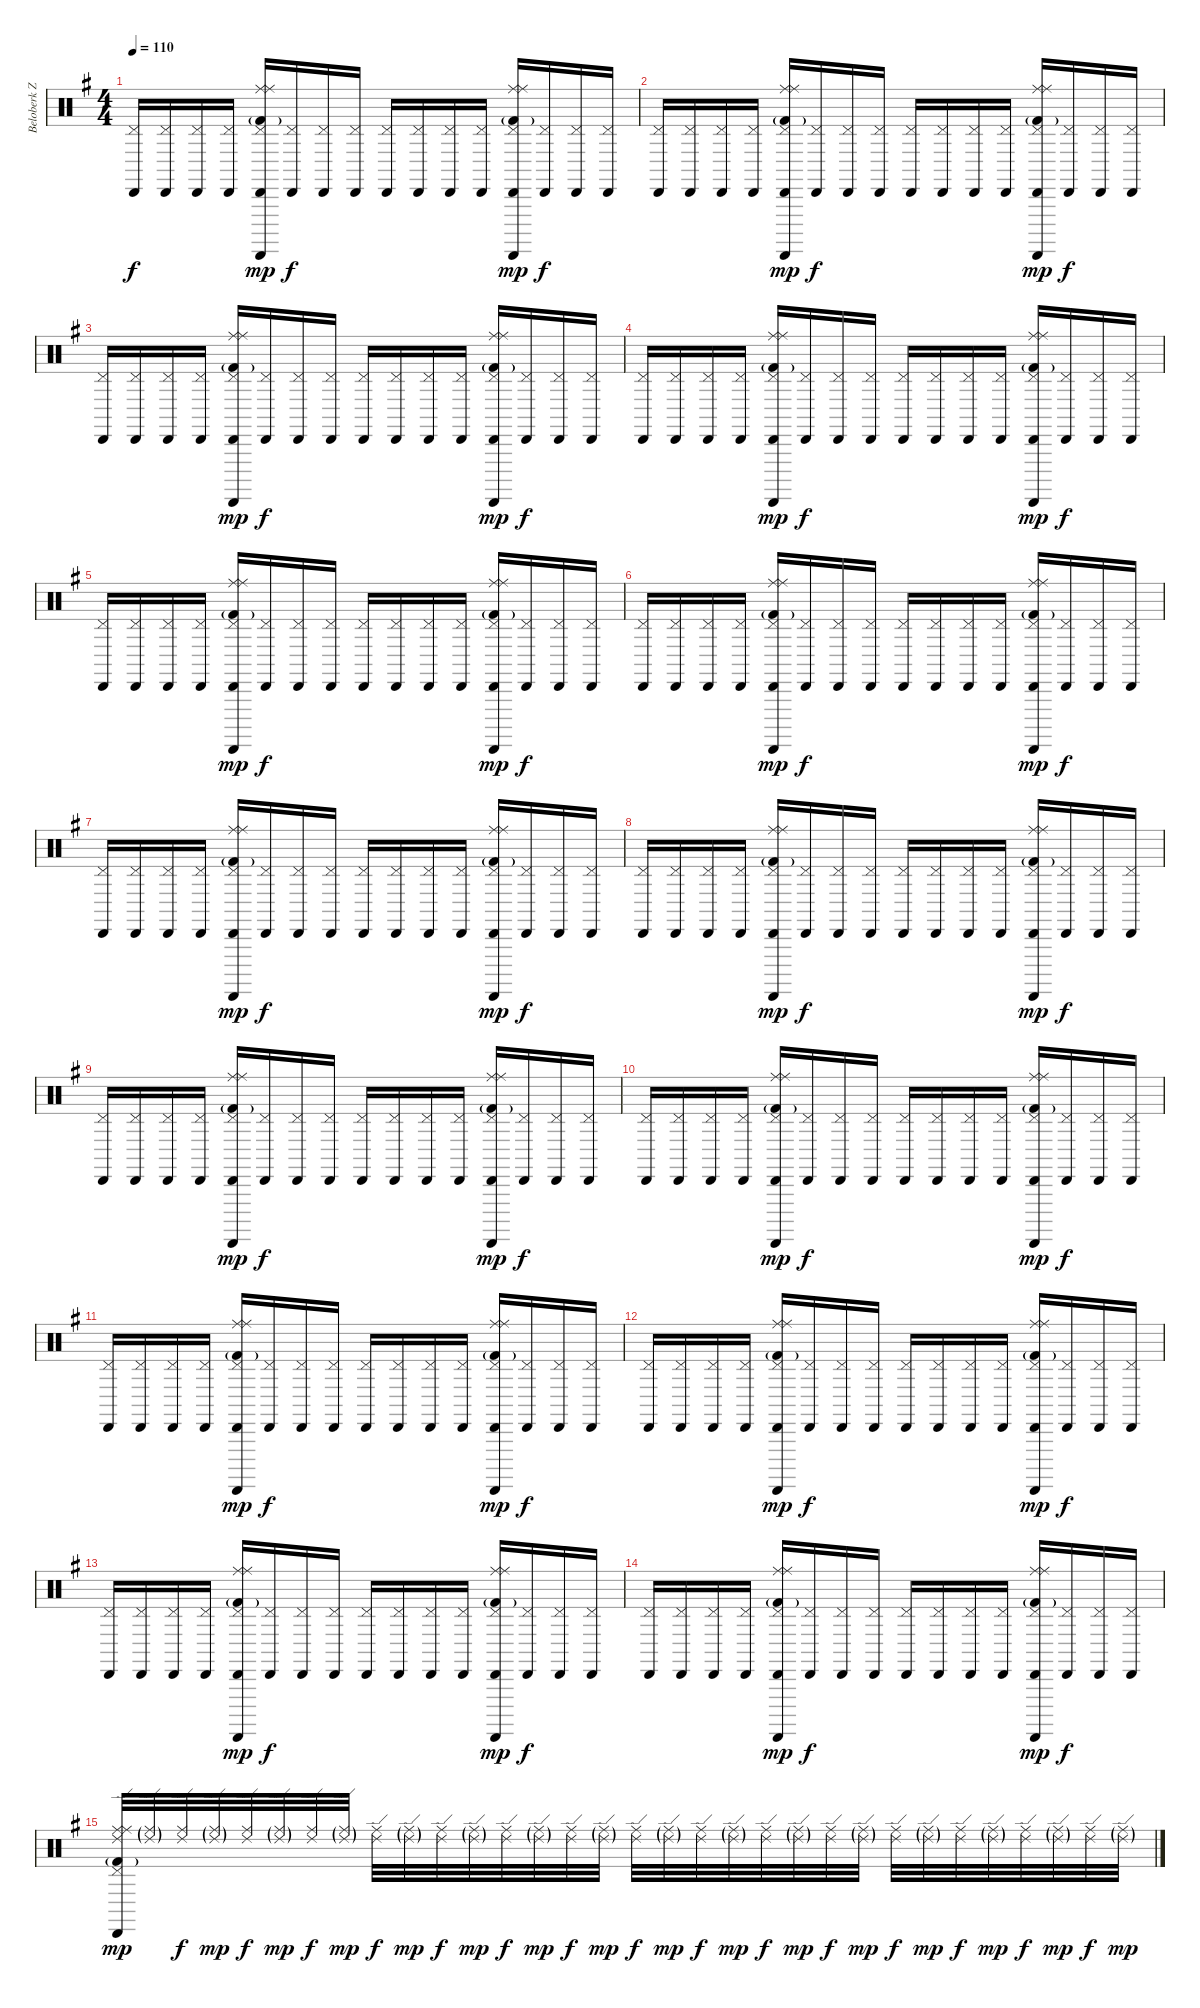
\track ("Beloberk Zsolt" "Beloberk Z") {instrument percussion}
\staff {score}
\articulation defaults
\ts (4 4)
\tempo 110
\clef neutral
\ks eminor
("Pedal Hi-Hat (hit)" "Cabasa (hit)").16{dy f} ("Pedal Hi-Hat (hit)" "Cabasa (hit)").16 ("Pedal Hi-Hat (hit)" "Cabasa (hit)").16 ("Pedal Hi-Hat (hit)" "Cabasa (hit)").16 ("Pedal Hi-Hat (hit)" "Cabasa (hit)" "Ride (middle)" "Ride (middle)" "Kick (hit) 2"{g} "Guiro (scrap-return)").16{dy mp} ("Pedal Hi-Hat (hit)" "Cabasa (hit)").16{dy f} ("Pedal Hi-Hat (hit)" "Cabasa (hit)").16 ("Pedal Hi-Hat (hit)" "Cabasa (hit)").16 ("Pedal Hi-Hat (hit)" "Cabasa (hit)").16 ("Pedal Hi-Hat (hit)" "Cabasa (hit)").16 ("Pedal Hi-Hat (hit)" "Cabasa (hit)").16 ("Pedal Hi-Hat (hit)" "Cabasa (hit)").16 ("Pedal Hi-Hat (hit)" "Cabasa (hit)" "Ride (middle)" "Ride (middle)" "Kick (hit) 2"{g} "Guiro (scrap-return)").16{dy mp} ("Pedal Hi-Hat (hit)" "Cabasa (hit)").16{dy f} ("Pedal Hi-Hat (hit)" "Cabasa (hit)").16 ("Pedal Hi-Hat (hit)" "Cabasa (hit)").16 |
("Pedal Hi-Hat (hit)" "Cabasa (hit)").16 ("Pedal Hi-Hat (hit)" "Cabasa (hit)").16 ("Pedal Hi-Hat (hit)" "Cabasa (hit)").16 ("Pedal Hi-Hat (hit)" "Cabasa (hit)").16 ("Pedal Hi-Hat (hit)" "Cabasa (hit)" "Ride (middle)" "Ride (middle)" "Kick (hit) 2"{g} "Guiro (scrap-return)").16{dy mp} ("Pedal Hi-Hat (hit)" "Cabasa (hit)").16{dy f} ("Pedal Hi-Hat (hit)" "Cabasa (hit)").16 ("Pedal Hi-Hat (hit)" "Cabasa (hit)").16 ("Pedal Hi-Hat (hit)" "Cabasa (hit)").16 ("Pedal Hi-Hat (hit)" "Cabasa (hit)").16 ("Pedal Hi-Hat (hit)" "Cabasa (hit)").16 ("Pedal Hi-Hat (hit)" "Cabasa (hit)").16 ("Pedal Hi-Hat (hit)" "Cabasa (hit)" "Ride (middle)" "Ride (middle)" "Kick (hit) 2"{g} "Guiro (scrap-return)").16{dy mp} ("Pedal Hi-Hat (hit)" "Cabasa (hit)").16{dy f} ("Pedal Hi-Hat (hit)" "Cabasa (hit)").16 ("Pedal Hi-Hat (hit)" "Cabasa (hit)").16 |
("Pedal Hi-Hat (hit)" "Cabasa (hit)").16 ("Pedal Hi-Hat (hit)" "Cabasa (hit)").16 ("Pedal Hi-Hat (hit)" "Cabasa (hit)").16 ("Pedal Hi-Hat (hit)" "Cabasa (hit)").16 ("Pedal Hi-Hat (hit)" "Cabasa (hit)" "Ride (middle)" "Ride (middle)" "Kick (hit) 2"{g} "Guiro (scrap-return)").16{dy mp} ("Pedal Hi-Hat (hit)" "Cabasa (hit)").16{dy f} ("Pedal Hi-Hat (hit)" "Cabasa (hit)").16 ("Pedal Hi-Hat (hit)" "Cabasa (hit)").16 ("Pedal Hi-Hat (hit)" "Cabasa (hit)").16 ("Pedal Hi-Hat (hit)" "Cabasa (hit)").16 ("Pedal Hi-Hat (hit)" "Cabasa (hit)").16 ("Pedal Hi-Hat (hit)" "Cabasa (hit)").16 ("Pedal Hi-Hat (hit)" "Cabasa (hit)" "Ride (middle)" "Ride (middle)" "Kick (hit) 2"{g} "Guiro (scrap-return)").16{dy mp} ("Pedal Hi-Hat (hit)" "Cabasa (hit)").16{dy f} ("Pedal Hi-Hat (hit)" "Cabasa (hit)").16 ("Pedal Hi-Hat (hit)" "Cabasa (hit)").16 |
("Pedal Hi-Hat (hit)" "Cabasa (hit)").16 ("Pedal Hi-Hat (hit)" "Cabasa (hit)").16 ("Pedal Hi-Hat (hit)" "Cabasa (hit)").16 ("Pedal Hi-Hat (hit)" "Cabasa (hit)").16 ("Pedal Hi-Hat (hit)" "Cabasa (hit)" "Ride (middle)" "Ride (middle)" "Kick (hit) 2"{g} "Guiro (scrap-return)").16{dy mp} ("Pedal Hi-Hat (hit)" "Cabasa (hit)").16{dy f} ("Pedal Hi-Hat (hit)" "Cabasa (hit)").16 ("Pedal Hi-Hat (hit)" "Cabasa (hit)").16 ("Pedal Hi-Hat (hit)" "Cabasa (hit)").16 ("Pedal Hi-Hat (hit)" "Cabasa (hit)").16 ("Pedal Hi-Hat (hit)" "Cabasa (hit)").16 ("Pedal Hi-Hat (hit)" "Cabasa (hit)").16 ("Pedal Hi-Hat (hit)" "Cabasa (hit)" "Ride (middle)" "Ride (middle)" "Kick (hit) 2"{g} "Guiro (scrap-return)").16{dy mp} ("Pedal Hi-Hat (hit)" "Cabasa (hit)").16{dy f} ("Pedal Hi-Hat (hit)" "Cabasa (hit)").16 ("Pedal Hi-Hat (hit)" "Cabasa (hit)").16 |
("Pedal Hi-Hat (hit)" "Cabasa (hit)").16 ("Pedal Hi-Hat (hit)" "Cabasa (hit)").16 ("Pedal Hi-Hat (hit)" "Cabasa (hit)").16 ("Pedal Hi-Hat (hit)" "Cabasa (hit)").16 ("Pedal Hi-Hat (hit)" "Cabasa (hit)" "Ride (middle)" "Ride (middle)" "Kick (hit) 2"{g} "Guiro (scrap-return)").16{dy mp} ("Pedal Hi-Hat (hit)" "Cabasa (hit)").16{dy f} ("Pedal Hi-Hat (hit)" "Cabasa (hit)").16 ("Pedal Hi-Hat (hit)" "Cabasa (hit)").16 ("Pedal Hi-Hat (hit)" "Cabasa (hit)").16 ("Pedal Hi-Hat (hit)" "Cabasa (hit)").16 ("Pedal Hi-Hat (hit)" "Cabasa (hit)").16 ("Pedal Hi-Hat (hit)" "Cabasa (hit)").16 ("Pedal Hi-Hat (hit)" "Cabasa (hit)" "Ride (middle)" "Ride (middle)" "Kick (hit) 2"{g} "Guiro (scrap-return)").16{dy mp} ("Pedal Hi-Hat (hit)" "Cabasa (hit)").16{dy f} ("Pedal Hi-Hat (hit)" "Cabasa (hit)").16 ("Pedal Hi-Hat (hit)" "Cabasa (hit)").16 |
("Pedal Hi-Hat (hit)" "Cabasa (hit)").16 ("Pedal Hi-Hat (hit)" "Cabasa (hit)").16 ("Pedal Hi-Hat (hit)" "Cabasa (hit)").16 ("Pedal Hi-Hat (hit)" "Cabasa (hit)").16 ("Pedal Hi-Hat (hit)" "Cabasa (hit)" "Ride (middle)" "Ride (middle)" "Kick (hit) 2"{g} "Guiro (scrap-return)").16{dy mp} ("Pedal Hi-Hat (hit)" "Cabasa (hit)").16{dy f} ("Pedal Hi-Hat (hit)" "Cabasa (hit)").16 ("Pedal Hi-Hat (hit)" "Cabasa (hit)").16 ("Pedal Hi-Hat (hit)" "Cabasa (hit)").16 ("Pedal Hi-Hat (hit)" "Cabasa (hit)").16 ("Pedal Hi-Hat (hit)" "Cabasa (hit)").16 ("Pedal Hi-Hat (hit)" "Cabasa (hit)").16 ("Pedal Hi-Hat (hit)" "Cabasa (hit)" "Ride (middle)" "Ride (middle)" "Kick (hit) 2"{g} "Guiro (scrap-return)").16{dy mp} ("Pedal Hi-Hat (hit)" "Cabasa (hit)").16{dy f} ("Pedal Hi-Hat (hit)" "Cabasa (hit)").16 ("Pedal Hi-Hat (hit)" "Cabasa (hit)").16 |
("Pedal Hi-Hat (hit)" "Cabasa (hit)").16 ("Pedal Hi-Hat (hit)" "Cabasa (hit)").16 ("Pedal Hi-Hat (hit)" "Cabasa (hit)").16 ("Pedal Hi-Hat (hit)" "Cabasa (hit)").16 ("Pedal Hi-Hat (hit)" "Cabasa (hit)" "Ride (middle)" "Ride (middle)" "Kick (hit) 2"{g} "Guiro (scrap-return)").16{dy mp} ("Pedal Hi-Hat (hit)" "Cabasa (hit)").16{dy f} ("Pedal Hi-Hat (hit)" "Cabasa (hit)").16 ("Pedal Hi-Hat (hit)" "Cabasa (hit)").16 ("Pedal Hi-Hat (hit)" "Cabasa (hit)").16 ("Pedal Hi-Hat (hit)" "Cabasa (hit)").16 ("Pedal Hi-Hat (hit)" "Cabasa (hit)").16 ("Pedal Hi-Hat (hit)" "Cabasa (hit)").16 ("Pedal Hi-Hat (hit)" "Cabasa (hit)" "Ride (middle)" "Ride (middle)" "Kick (hit) 2"{g} "Guiro (scrap-return)").16{dy mp} ("Pedal Hi-Hat (hit)" "Cabasa (hit)").16{dy f} ("Pedal Hi-Hat (hit)" "Cabasa (hit)").16 ("Pedal Hi-Hat (hit)" "Cabasa (hit)").16 |
("Pedal Hi-Hat (hit)" "Cabasa (hit)").16 ("Pedal Hi-Hat (hit)" "Cabasa (hit)").16 ("Pedal Hi-Hat (hit)" "Cabasa (hit)").16 ("Pedal Hi-Hat (hit)" "Cabasa (hit)").16 ("Pedal Hi-Hat (hit)" "Cabasa (hit)" "Ride (middle)" "Ride (middle)" "Kick (hit) 2"{g} "Guiro (scrap-return)").16{dy mp} ("Pedal Hi-Hat (hit)" "Cabasa (hit)").16{dy f} ("Pedal Hi-Hat (hit)" "Cabasa (hit)").16 ("Pedal Hi-Hat (hit)" "Cabasa (hit)").16 ("Pedal Hi-Hat (hit)" "Cabasa (hit)").16 ("Pedal Hi-Hat (hit)" "Cabasa (hit)").16 ("Pedal Hi-Hat (hit)" "Cabasa (hit)").16 ("Pedal Hi-Hat (hit)" "Cabasa (hit)").16 ("Pedal Hi-Hat (hit)" "Cabasa (hit)" "Ride (middle)" "Ride (middle)" "Kick (hit) 2"{g} "Guiro (scrap-return)").16{dy mp} ("Pedal Hi-Hat (hit)" "Cabasa (hit)").16{dy f} ("Pedal Hi-Hat (hit)" "Cabasa (hit)").16 ("Pedal Hi-Hat (hit)" "Cabasa (hit)").16 |
("Pedal Hi-Hat (hit)" "Cabasa (hit)").16 ("Pedal Hi-Hat (hit)" "Cabasa (hit)").16 ("Pedal Hi-Hat (hit)" "Cabasa (hit)").16 ("Pedal Hi-Hat (hit)" "Cabasa (hit)").16 ("Pedal Hi-Hat (hit)" "Cabasa (hit)" "Ride (middle)" "Ride (middle)" "Kick (hit) 2"{g} "Guiro (scrap-return)").16{dy mp} ("Pedal Hi-Hat (hit)" "Cabasa (hit)").16{dy f} ("Pedal Hi-Hat (hit)" "Cabasa (hit)").16 ("Pedal Hi-Hat (hit)" "Cabasa (hit)").16 ("Pedal Hi-Hat (hit)" "Cabasa (hit)").16 ("Pedal Hi-Hat (hit)" "Cabasa (hit)").16 ("Pedal Hi-Hat (hit)" "Cabasa (hit)").16 ("Pedal Hi-Hat (hit)" "Cabasa (hit)").16 ("Pedal Hi-Hat (hit)" "Cabasa (hit)" "Ride (middle)" "Ride (middle)" "Kick (hit) 2"{g} "Guiro (scrap-return)").16{dy mp} ("Pedal Hi-Hat (hit)" "Cabasa (hit)").16{dy f} ("Pedal Hi-Hat (hit)" "Cabasa (hit)").16 ("Pedal Hi-Hat (hit)" "Cabasa (hit)").16 |
("Pedal Hi-Hat (hit)" "Cabasa (hit)").16 ("Pedal Hi-Hat (hit)" "Cabasa (hit)").16 ("Pedal Hi-Hat (hit)" "Cabasa (hit)").16 ("Pedal Hi-Hat (hit)" "Cabasa (hit)").16 ("Pedal Hi-Hat (hit)" "Cabasa (hit)" "Ride (middle)" "Ride (middle)" "Kick (hit) 2"{g} "Guiro (scrap-return)").16{dy mp} ("Pedal Hi-Hat (hit)" "Cabasa (hit)").16{dy f} ("Pedal Hi-Hat (hit)" "Cabasa (hit)").16 ("Pedal Hi-Hat (hit)" "Cabasa (hit)").16 ("Pedal Hi-Hat (hit)" "Cabasa (hit)").16 ("Pedal Hi-Hat (hit)" "Cabasa (hit)").16 ("Pedal Hi-Hat (hit)" "Cabasa (hit)").16 ("Pedal Hi-Hat (hit)" "Cabasa (hit)").16 ("Pedal Hi-Hat (hit)" "Cabasa (hit)" "Ride (middle)" "Ride (middle)" "Kick (hit) 2"{g} "Guiro (scrap-return)").16{dy mp} ("Pedal Hi-Hat (hit)" "Cabasa (hit)").16{dy f} ("Pedal Hi-Hat (hit)" "Cabasa (hit)").16 ("Pedal Hi-Hat (hit)" "Cabasa (hit)").16 |
("Pedal Hi-Hat (hit)" "Cabasa (hit)").16 ("Pedal Hi-Hat (hit)" "Cabasa (hit)").16 ("Pedal Hi-Hat (hit)" "Cabasa (hit)").16 ("Pedal Hi-Hat (hit)" "Cabasa (hit)").16 ("Pedal Hi-Hat (hit)" "Cabasa (hit)" "Ride (middle)" "Ride (middle)" "Kick (hit) 2"{g} "Guiro (scrap-return)").16{dy mp} ("Pedal Hi-Hat (hit)" "Cabasa (hit)").16{dy f} ("Pedal Hi-Hat (hit)" "Cabasa (hit)").16 ("Pedal Hi-Hat (hit)" "Cabasa (hit)").16 ("Pedal Hi-Hat (hit)" "Cabasa (hit)").16 ("Pedal Hi-Hat (hit)" "Cabasa (hit)").16 ("Pedal Hi-Hat (hit)" "Cabasa (hit)").16 ("Pedal Hi-Hat (hit)" "Cabasa (hit)").16 ("Pedal Hi-Hat (hit)" "Cabasa (hit)" "Ride (middle)" "Ride (middle)" "Kick (hit) 2"{g} "Guiro (scrap-return)").16{dy mp} ("Pedal Hi-Hat (hit)" "Cabasa (hit)").16{dy f} ("Pedal Hi-Hat (hit)" "Cabasa (hit)").16 ("Pedal Hi-Hat (hit)" "Cabasa (hit)").16 |
("Pedal Hi-Hat (hit)" "Cabasa (hit)").16 ("Pedal Hi-Hat (hit)" "Cabasa (hit)").16 ("Pedal Hi-Hat (hit)" "Cabasa (hit)").16 ("Pedal Hi-Hat (hit)" "Cabasa (hit)").16 ("Pedal Hi-Hat (hit)" "Cabasa (hit)" "Ride (middle)" "Ride (middle)" "Kick (hit) 2"{g} "Guiro (scrap-return)").16{dy mp} ("Pedal Hi-Hat (hit)" "Cabasa (hit)").16{dy f} ("Pedal Hi-Hat (hit)" "Cabasa (hit)").16 ("Pedal Hi-Hat (hit)" "Cabasa (hit)").16 ("Pedal Hi-Hat (hit)" "Cabasa (hit)").16 ("Pedal Hi-Hat (hit)" "Cabasa (hit)").16 ("Pedal Hi-Hat (hit)" "Cabasa (hit)").16 ("Pedal Hi-Hat (hit)" "Cabasa (hit)").16 ("Pedal Hi-Hat (hit)" "Cabasa (hit)" "Ride (middle)" "Ride (middle)" "Kick (hit) 2"{g} "Guiro (scrap-return)").16{dy mp} ("Pedal Hi-Hat (hit)" "Cabasa (hit)").16{dy f} ("Pedal Hi-Hat (hit)" "Cabasa (hit)").16 ("Pedal Hi-Hat (hit)" "Cabasa (hit)").16 |
("Pedal Hi-Hat (hit)" "Cabasa (hit)").16 ("Pedal Hi-Hat (hit)" "Cabasa (hit)").16 ("Pedal Hi-Hat (hit)" "Cabasa (hit)").16 ("Pedal Hi-Hat (hit)" "Cabasa (hit)").16 ("Pedal Hi-Hat (hit)" "Cabasa (hit)" "Ride (middle)" "Ride (middle)" "Kick (hit) 2"{g} "Guiro (scrap-return)").16{dy mp} ("Pedal Hi-Hat (hit)" "Cabasa (hit)").16{dy f} ("Pedal Hi-Hat (hit)" "Cabasa (hit)").16 ("Pedal Hi-Hat (hit)" "Cabasa (hit)").16 ("Pedal Hi-Hat (hit)" "Cabasa (hit)").16 ("Pedal Hi-Hat (hit)" "Cabasa (hit)").16 ("Pedal Hi-Hat (hit)" "Cabasa (hit)").16 ("Pedal Hi-Hat (hit)" "Cabasa (hit)").16 ("Pedal Hi-Hat (hit)" "Cabasa (hit)" "Ride (middle)" "Ride (middle)" "Kick (hit) 2"{g} "Guiro (scrap-return)").16{dy mp} ("Pedal Hi-Hat (hit)" "Cabasa (hit)").16{dy f} ("Pedal Hi-Hat (hit)" "Cabasa (hit)").16 ("Pedal Hi-Hat (hit)" "Cabasa (hit)").16 |
("Pedal Hi-Hat (hit)" "Cabasa (hit)").16 ("Pedal Hi-Hat (hit)" "Cabasa (hit)").16 ("Pedal Hi-Hat (hit)" "Cabasa (hit)").16 ("Pedal Hi-Hat (hit)" "Cabasa (hit)").16 ("Pedal Hi-Hat (hit)" "Cabasa (hit)" "Ride (middle)" "Ride (middle)" "Kick (hit) 2"{g} "Guiro (scrap-return)").16{dy mp} ("Pedal Hi-Hat (hit)" "Cabasa (hit)").16{dy f} ("Pedal Hi-Hat (hit)" "Cabasa (hit)").16 ("Pedal Hi-Hat (hit)" "Cabasa (hit)").16 ("Pedal Hi-Hat (hit)" "Cabasa (hit)").16 ("Pedal Hi-Hat (hit)" "Cabasa (hit)").16 ("Pedal Hi-Hat (hit)" "Cabasa (hit)").16 ("Pedal Hi-Hat (hit)" "Cabasa (hit)").16 ("Pedal Hi-Hat (hit)" "Cabasa (hit)" "Ride (middle)" "Ride (middle)" "Kick (hit) 2"{g} "Guiro (scrap-return)").16{dy mp} ("Pedal Hi-Hat (hit)" "Cabasa (hit)").16{dy f} ("Pedal Hi-Hat (hit)" "Cabasa (hit)").16 ("Pedal Hi-Hat (hit)" "Cabasa (hit)").16 |
("Pedal Hi-Hat (hit)" "Cabasa (hit)" "Ride (middle)" "Ride (edge) 2" "Kick (hit) 2"{g} "Ride (middle)").32{dy mp} ("Ride (middle)"{g} "Ride (edge) 2"{g}).32 ("Ride (middle)" "Ride (edge) 2").32{dy f} ("Ride (middle)"{g} "Ride (edge) 2"{g}).32{dy mp} ("Ride (middle)" "Ride (edge) 2").32{dy f} ("Ride (middle)"{g} "Ride (edge) 2"{g}).32{dy mp} ("Ride (middle)" "Ride (edge) 2").32{dy f} ("Ride (middle)"{g} "Ride (edge) 2"{g}).32{dy mp} ("Ride (middle)" "Ride (edge) 2").32{dy f} ("Ride (middle)"{g} "Ride (edge) 2"{g}).32{dy mp} ("Ride (middle)" "Ride (edge) 2").32{dy f} ("Ride (middle)"{g} "Ride (edge) 2"{g}).32{dy mp} ("Ride (middle)" "Ride (edge) 2").32{dy f} ("Ride (middle)"{g} "Ride (edge) 2"{g}).32{dy mp} ("Ride (middle)" "Ride (edge) 2").32{dy f} ("Ride (middle)"{g} "Ride (edge) 2"{g}).32{dy mp} ("Ride (middle)" "Ride (edge) 2").32{dy f} ("Ride (middle)"{g} "Ride (edge) 2"{g}).32{dy mp} ("Ride (middle)" "Ride (edge) 2").32{dy f} ("Ride (middle)"{g} "Ride (edge) 2"{g}).32{dy mp} ("Ride (middle)" "Ride (edge) 2").32{dy f} ("Ride (middle)"{g} "Ride (edge) 2"{g}).32{dy mp} ("Ride (middle)" "Ride (edge) 2").32{dy f} ("Ride (middle)"{g} "Ride (edge) 2"{g}).32{dy mp} ("Ride (middle)" "Ride (edge) 2").32{dy f} ("Ride (middle)"{g} "Ride (edge) 2"{g}).32{dy mp} ("Ride (middle)" "Ride (edge) 2").32{dy f} ("Ride (middle)"{g} "Ride (edge) 2"{g}).32{dy mp} ("Ride (middle)" "Ride (edge) 2").32{dy f} ("Ride (middle)"{g} "Ride (edge) 2"{g}).32{dy mp} ("Ride (middle)" "Ride (edge) 2").32{dy f} ("Ride (middle)"{g} "Ride (edge) 2"{g}).32{dy mp}
